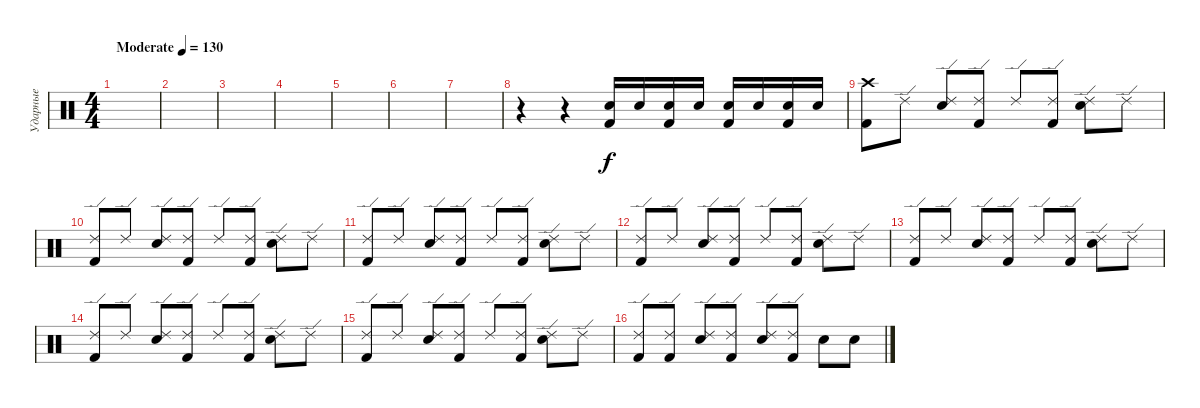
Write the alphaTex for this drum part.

\track ("Ударные" "Ударные") {instrument percussion}
\staff {score}
\articulation defaults
\ts (4 4)
\tempo (130 "Moderate")
\clef neutral
\ks c
|
|
|
|
|
|
|
r.4 r.4 ("Snare (hit) 2" "Kick (hit) 2").16 "Snare (hit) 2".16 ("Snare (hit) 2" "Kick (hit) 2").16 "Snare (hit) 2".16 ("Snare (hit) 2" "Kick (hit) 2").16 "Snare (hit) 2".16 ("Snare (hit) 2" "Kick (hit) 2").16 "Snare (hit) 2".16 |
("Kick (hit) 2" "Crash high (hit)").8 "Ride (edge) 2".8 ("Snare (hit) 2" "Ride (edge) 2").8 ("Kick (hit) 2" "Ride (edge) 2").8 "Ride (edge) 2".8 ("Kick (hit) 2" "Ride (edge) 2").8 ("Snare (hit) 2" "Ride (edge) 2").8 "Ride (edge) 2".8 |
("Kick (hit) 2" "Ride (edge) 2").8 "Ride (edge) 2".8 ("Snare (hit) 2" "Ride (edge) 2").8 ("Kick (hit) 2" "Ride (edge) 2").8 "Ride (edge) 2".8 ("Kick (hit) 2" "Ride (edge) 2").8 ("Snare (hit) 2" "Ride (edge) 2").8 "Ride (edge) 2".8 |
("Kick (hit) 2" "Ride (edge) 2").8 "Ride (edge) 2".8 ("Snare (hit) 2" "Ride (edge) 2").8 ("Kick (hit) 2" "Ride (edge) 2").8 "Ride (edge) 2".8 ("Kick (hit) 2" "Ride (edge) 2").8 ("Snare (hit) 2" "Ride (edge) 2").8 "Ride (edge) 2".8 |
("Kick (hit) 2" "Ride (edge) 2").8 "Ride (edge) 2".8 ("Snare (hit) 2" "Ride (edge) 2").8 ("Kick (hit) 2" "Ride (edge) 2").8 "Ride (edge) 2".8 ("Kick (hit) 2" "Ride (edge) 2").8 ("Snare (hit) 2" "Ride (edge) 2").8 "Ride (edge) 2".8 |
("Kick (hit) 2" "Ride (edge) 2").8 "Ride (edge) 2".8 ("Snare (hit) 2" "Ride (edge) 2").8 ("Kick (hit) 2" "Ride (edge) 2").8 "Ride (edge) 2".8 ("Kick (hit) 2" "Ride (edge) 2").8 ("Snare (hit) 2" "Ride (edge) 2").8 "Ride (edge) 2".8 |
("Kick (hit) 2" "Ride (edge) 2").8 "Ride (edge) 2".8 ("Snare (hit) 2" "Ride (edge) 2").8 ("Kick (hit) 2" "Ride (edge) 2").8 "Ride (edge) 2".8 ("Kick (hit) 2" "Ride (edge) 2").8 ("Snare (hit) 2" "Ride (edge) 2").8 "Ride (edge) 2".8 |
("Kick (hit) 2" "Ride (edge) 2").8 "Ride (edge) 2".8 ("Snare (hit) 2" "Ride (edge) 2").8 ("Kick (hit) 2" "Ride (edge) 2").8 "Ride (edge) 2".8 ("Kick (hit) 2" "Ride (edge) 2").8 ("Snare (hit) 2" "Ride (edge) 2").8 "Ride (edge) 2".8 |
("Kick (hit) 2" "Ride (edge) 2").8 ("Kick (hit) 2" "Ride (edge) 2").8 ("Snare (hit) 2" "Ride (edge) 2").8 ("Kick (hit) 2" "Ride (edge) 2").8 ("Snare (hit) 2" "Ride (edge) 2").8 ("Kick (hit) 2" "Ride (edge) 2").8 "Snare (hit) 2".8 "Snare (hit) 2".8
